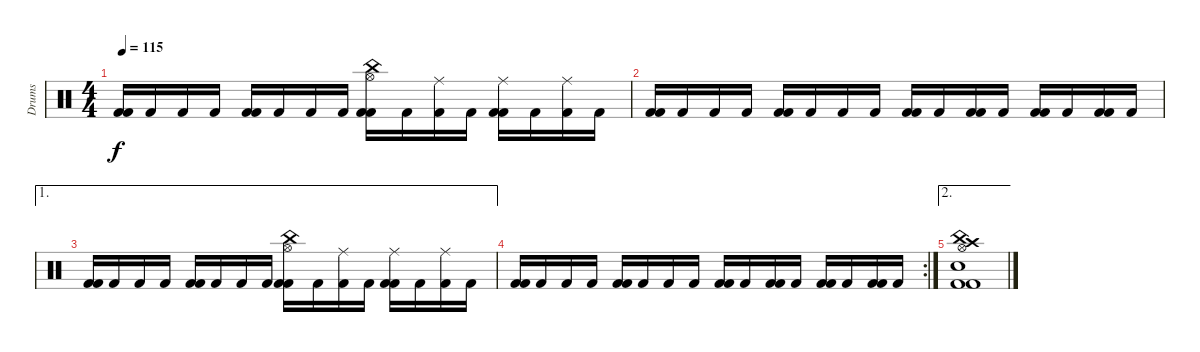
\track ("Drums" "Drums") {instrument percussion}
\staff {score}
\articulation defaults
\ts (4 4)
\tempo 115
\clef neutral
\ks c
("Kick (hit) 2" "Kick (hit) 2").16{dy f} "Kick (hit) 2".16 "Kick (hit) 2".16 "Kick (hit) 2".16 ("Kick (hit) 2" "Kick (hit) 2").16 "Kick (hit) 2".16 "Kick (hit) 2".16 "Kick (hit) 2".16 ("China (hit)" "Kick (hit) 2" "Kick (hit) 2" "Hi-Hat (open)").16 "Kick (hit) 2".16 ("Ride (middle)" "Kick (hit) 2").16 "Kick (hit) 2".16 ("Ride (middle)" "Kick (hit) 2" "Kick (hit) 2").16 "Kick (hit) 2".16 ("Ride (middle)" "Kick (hit) 2").16 "Kick (hit) 2".16 |
("Kick (hit) 2" "Kick (hit) 2").16 "Kick (hit) 2".16 "Kick (hit) 2".16 "Kick (hit) 2".16 ("Kick (hit) 2" "Kick (hit) 2").16 "Kick (hit) 2".16 "Kick (hit) 2".16 "Kick (hit) 2".16 ("Kick (hit) 2" "Kick (hit) 2").16 "Kick (hit) 2".16 ("Kick (hit) 2" "Kick (hit) 2").16 "Kick (hit) 2".16 ("Kick (hit) 2" "Kick (hit) 2").16 "Kick (hit) 2".16 ("Kick (hit) 2" "Kick (hit) 2").16 "Kick (hit) 2".16 |
\ae 1
("Kick (hit) 2" "Kick (hit) 2").16 "Kick (hit) 2".16 "Kick (hit) 2".16 "Kick (hit) 2".16 ("Kick (hit) 2" "Kick (hit) 2").16 "Kick (hit) 2".16 "Kick (hit) 2".16 "Kick (hit) 2".16 ("China (hit)" "Kick (hit) 2" "Kick (hit) 2" "Hi-Hat (open)").16 "Kick (hit) 2".16 ("Ride (middle)" "Kick (hit) 2").16 "Kick (hit) 2".16 ("Ride (middle)" "Kick (hit) 2" "Kick (hit) 2").16 "Kick (hit) 2".16 ("Ride (middle)" "Kick (hit) 2").16 "Kick (hit) 2".16 |
\rc 2
("Kick (hit) 2" "Kick (hit) 2").16 "Kick (hit) 2".16 "Kick (hit) 2".16 "Kick (hit) 2".16 ("Kick (hit) 2" "Kick (hit) 2").16 "Kick (hit) 2".16 "Kick (hit) 2".16 "Kick (hit) 2".16 ("Kick (hit) 2" "Kick (hit) 2").16 "Kick (hit) 2".16 ("Kick (hit) 2" "Kick (hit) 2").16 "Kick (hit) 2".16 ("Kick (hit) 2" "Kick (hit) 2").16 "Kick (hit) 2".16 ("Kick (hit) 2" "Kick (hit) 2").16 "Kick (hit) 2".16 |
\ae 2
("China (hit)" "Kick (hit) 2" "Kick (hit) 2" "Hi-Hat (open)" "Crash high (hit)" "Snare (hit) 2").1
